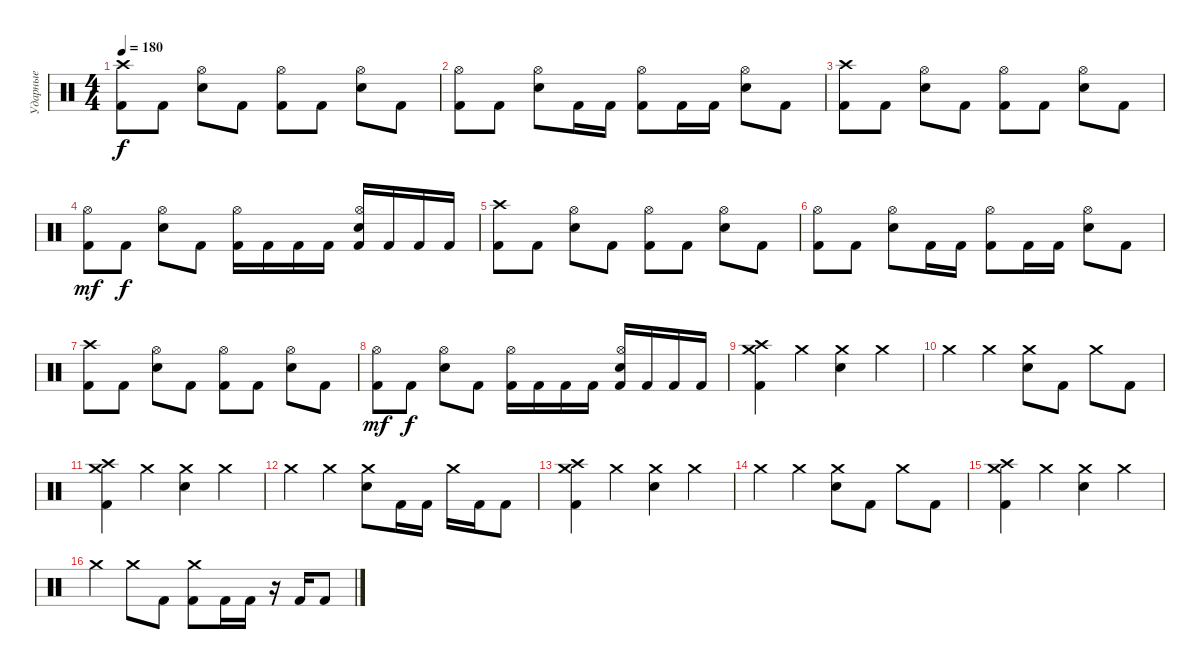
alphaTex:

\track ("Ударные" "Ударные") {instrument percussion}
\staff {score}
\articulation defaults
\ts (4 4)
\section ("" "")
\tempo 180
\clef neutral
\ks c
("Crash high (hit)" "Kick (hit) 2").8{dy f} "Kick (hit) 2".8 ("Hi-Hat (open)" "Electric Snare (hit)").8 "Kick (hit) 2".8 ("Hi-Hat (open)" "Kick (hit) 2").8 "Kick (hit) 2".8 ("Hi-Hat (open)" "Electric Snare (hit)").8 "Kick (hit) 2".8 |
("Hi-Hat (open)" "Kick (hit) 2").8 "Kick (hit) 2".8 ("Hi-Hat (open)" "Electric Snare (hit)").8 "Kick (hit) 2".16 "Kick (hit) 2".16 ("Hi-Hat (open)" "Kick (hit) 2").8 "Kick (hit) 2".16 "Kick (hit) 2".16 ("Hi-Hat (open)" "Electric Snare (hit)").8 "Kick (hit) 2".8 |
("Crash high (hit)" "Kick (hit) 2").8 "Kick (hit) 2".8 ("Hi-Hat (open)" "Electric Snare (hit)").8 "Kick (hit) 2".8 ("Hi-Hat (open)" "Kick (hit) 2").8 "Kick (hit) 2".8 ("Hi-Hat (open)" "Electric Snare (hit)").8 "Kick (hit) 2".8 |
("Hi-Hat (open)" "Kick (hit) 2").8{dy mf} "Kick (hit) 2".8{dy f} ("Hi-Hat (open)" "Electric Snare (hit)").8 "Kick (hit) 2".8 ("Hi-Hat (open)" "Kick (hit) 2").16 "Kick (hit) 2".16 "Kick (hit) 2".16 "Kick (hit) 2".16 ("Hi-Hat (open)" "Electric Snare (hit)" "Kick (hit) 2").16 "Kick (hit) 2".16 "Kick (hit) 2".16 "Kick (hit) 2".16 |
("Crash high (hit)" "Kick (hit) 2").8 "Kick (hit) 2".8 ("Hi-Hat (open)" "Electric Snare (hit)").8 "Kick (hit) 2".8 ("Hi-Hat (open)" "Kick (hit) 2").8 "Kick (hit) 2".8 ("Hi-Hat (open)" "Electric Snare (hit)").8 "Kick (hit) 2".8 |
("Hi-Hat (open)" "Kick (hit) 2").8 "Kick (hit) 2".8 ("Hi-Hat (open)" "Electric Snare (hit)").8 "Kick (hit) 2".16 "Kick (hit) 2".16 ("Hi-Hat (open)" "Kick (hit) 2").8 "Kick (hit) 2".16 "Kick (hit) 2".16 ("Hi-Hat (open)" "Electric Snare (hit)").8 "Kick (hit) 2".8 |
("Crash high (hit)" "Kick (hit) 2").8 "Kick (hit) 2".8 ("Hi-Hat (open)" "Electric Snare (hit)").8 "Kick (hit) 2".8 ("Hi-Hat (open)" "Kick (hit) 2").8 "Kick (hit) 2".8 ("Hi-Hat (open)" "Electric Snare (hit)").8 "Kick (hit) 2".8 |
("Hi-Hat (open)" "Kick (hit) 2").8{dy mf} "Kick (hit) 2".8{dy f} ("Hi-Hat (open)" "Electric Snare (hit)").8 "Kick (hit) 2".8 ("Hi-Hat (open)" "Kick (hit) 2").16 "Kick (hit) 2".16 "Kick (hit) 2".16 "Kick (hit) 2".16 ("Hi-Hat (open)" "Electric Snare (hit)" "Kick (hit) 2").16 "Kick (hit) 2".16 "Kick (hit) 2".16 "Kick (hit) 2".16 |
("Crash medium (hit)" "Crash high (hit)" "Kick (hit) 2").4 "Crash medium (hit)".4 ("Crash medium (hit)" "Electric Snare (hit)").4 "Crash medium (hit)".4 |
"Crash medium (hit)".4 "Crash medium (hit)".4 ("Crash medium (hit)" "Electric Snare (hit)").8 "Kick (hit) 2".8 "Crash medium (hit)".8 "Kick (hit) 2".8 |
("Crash medium (hit)" "Crash high (hit)" "Kick (hit) 2").4 "Crash medium (hit)".4 ("Crash medium (hit)" "Electric Snare (hit)").4 "Crash medium (hit)".4 |
"Crash medium (hit)".4 "Crash medium (hit)".4 ("Crash medium (hit)" "Electric Snare (hit)").8 "Kick (hit) 2".16 "Kick (hit) 2".16 "Crash medium (hit)".16 "Kick (hit) 2".16 "Kick (hit) 2".8 |
("Crash medium (hit)" "Crash high (hit)" "Kick (hit) 2").4 "Crash medium (hit)".4 ("Crash medium (hit)" "Electric Snare (hit)").4 "Crash medium (hit)".4 |
"Crash medium (hit)".4 "Crash medium (hit)".4 ("Crash medium (hit)" "Electric Snare (hit)").8 "Kick (hit) 2".8 "Crash medium (hit)".8 "Kick (hit) 2".8 |
("Crash medium (hit)" "Crash high (hit)" "Kick (hit) 2").4 "Crash medium (hit)".4 ("Crash medium (hit)" "Electric Snare (hit)").4 "Crash medium (hit)".4 |
"Crash medium (hit)".4 "Crash medium (hit)".8 "Kick (hit) 2".8 ("Crash medium (hit)" "Kick (hit) 2").8 "Kick (hit) 2".16 "Kick (hit) 2".16 r.16 "Kick (hit) 2".16 "Kick (hit) 2".8
